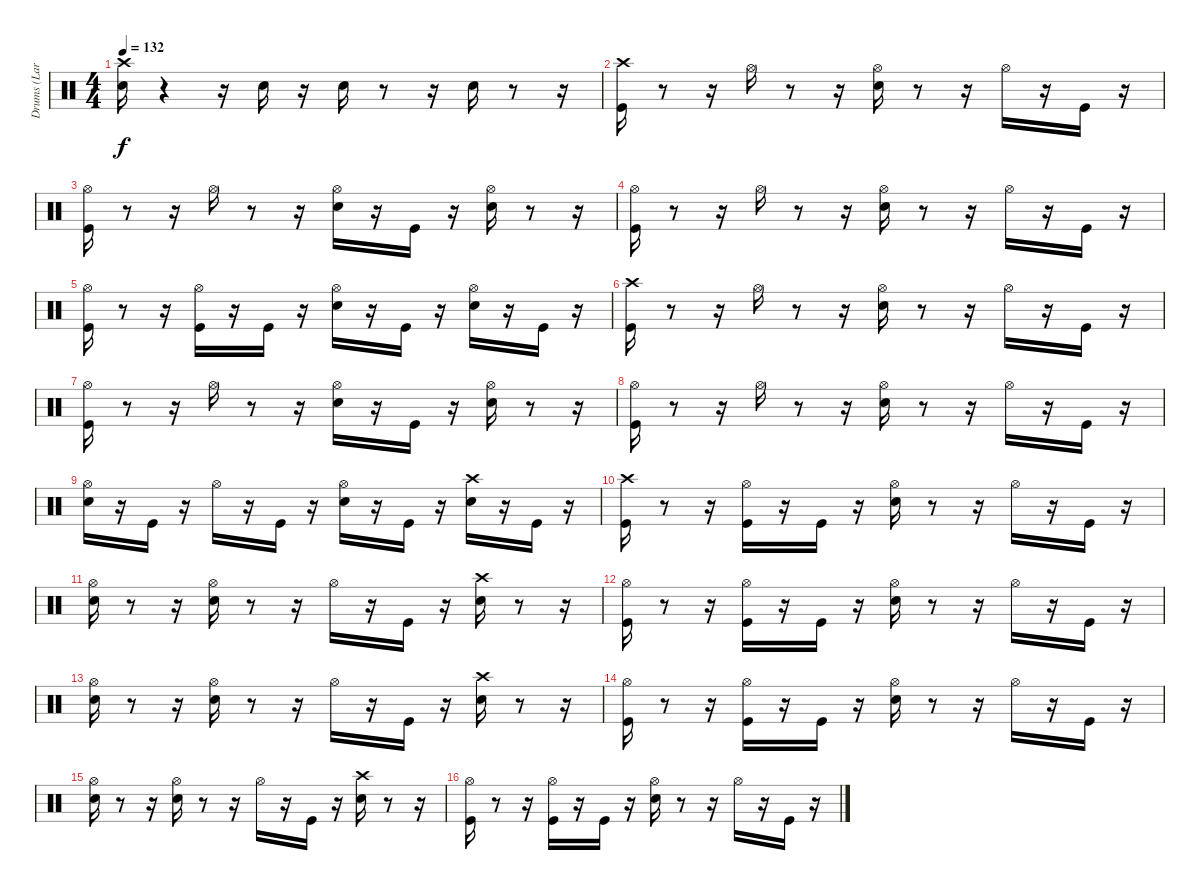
\track ("Drums (Lars)" "Drums (Lar") {instrument percussion}
\staff {score}
\articulation defaults
\ts (4 4)
\tempo 132
\clef neutral
\ks c
("Snare (hit) 2" "Crash high (hit)").16{dy f} r.4 r.16 "Snare (hit) 2".16 r.16 "Snare (hit) 2".16 r.8 r.16 "Snare (hit) 2".16 r.8 r.16 |
("Kick (hit)" "Crash high (hit)").16 r.8 r.16 "Hi-Hat (open)".16 r.8 r.16 ("Hi-Hat (open)" "Snare (hit) 2").16 r.8 r.16 "Hi-Hat (open)".16 r.16 "Kick (hit)".16 r.16 |
("Hi-Hat (open)" "Kick (hit)").16 r.8 r.16 "Hi-Hat (open)".16 r.8 r.16 ("Hi-Hat (open)" "Snare (hit) 2").16 r.16 "Kick (hit)".16 r.16 ("Hi-Hat (open)" "Snare (hit) 2").16 r.8 r.16 |
("Hi-Hat (open)" "Kick (hit)").16 r.8 r.16 "Hi-Hat (open)".16 r.8 r.16 ("Hi-Hat (open)" "Snare (hit) 2").16 r.8 r.16 "Hi-Hat (open)".16 r.16 "Kick (hit)".16 r.16 |
("Kick (hit)" "Hi-Hat (open)").16 r.8 r.16 ("Hi-Hat (open)" "Kick (hit)").16 r.16 "Kick (hit)".16 r.16 ("Hi-Hat (open)" "Snare (hit) 2").16 r.16 "Kick (hit)".16 r.16 ("Hi-Hat (open)" "Snare (hit) 2").16 r.16 "Kick (hit)".16 r.16 |
("Kick (hit)" "Crash high (hit)").16 r.8 r.16 "Hi-Hat (open)".16 r.8 r.16 ("Hi-Hat (open)" "Snare (hit) 2").16 r.8 r.16 "Hi-Hat (open)".16 r.16 "Kick (hit)".16 r.16 |
("Hi-Hat (open)" "Kick (hit)").16 r.8 r.16 "Hi-Hat (open)".16 r.8 r.16 ("Hi-Hat (open)" "Snare (hit) 2").16 r.16 "Kick (hit)".16 r.16 ("Hi-Hat (open)" "Snare (hit) 2").16 r.8 r.16 |
("Hi-Hat (open)" "Kick (hit)").16 r.8 r.16 "Hi-Hat (open)".16 r.8 r.16 ("Hi-Hat (open)" "Snare (hit) 2").16 r.8 r.16 "Hi-Hat (open)".16 r.16 "Kick (hit)".16 r.16 |
("Hi-Hat (open)" "Snare (hit) 2").16 r.16 "Kick (hit)".16 r.16 "Hi-Hat (open)".16 r.16 "Kick (hit)".16 r.16 ("Hi-Hat (open)" "Snare (hit) 2").16 r.16 "Kick (hit)".16 r.16 ("Snare (hit) 2" "Crash high (hit)").16 r.16 "Kick (hit)".16 r.16 |
("Kick (hit)" "Crash high (hit)").16 r.8 r.16 ("Hi-Hat (open)" "Kick (hit)").16 r.16 "Kick (hit)".16 r.16 ("Hi-Hat (open)" "Snare (hit) 2").16 r.8 r.16 "Hi-Hat (open)".16 r.16 "Kick (hit)".16 r.16 |
("Hi-Hat (open)" "Snare (hit) 2").16 r.8 r.16 ("Hi-Hat (open)" "Snare (hit) 2").16 r.8 r.16 "Hi-Hat (open)".16 r.16 "Kick (hit)".16 r.16 ("Crash high (hit)" "Snare (hit) 2").16 r.8 r.16 |
("Hi-Hat (open)" "Kick (hit)").16 r.8 r.16 ("Hi-Hat (open)" "Kick (hit)").16 r.16 "Kick (hit)".16 r.16 ("Hi-Hat (open)" "Snare (hit) 2").16 r.8 r.16 "Hi-Hat (open)".16 r.16 "Kick (hit)".16 r.16 |
("Hi-Hat (open)" "Snare (hit) 2").16 r.8 r.16 ("Hi-Hat (open)" "Snare (hit) 2").16 r.8 r.16 "Hi-Hat (open)".16 r.16 "Kick (hit)".16 r.16 ("Crash high (hit)" "Snare (hit) 2").16 r.8 r.16 |
("Hi-Hat (open)" "Kick (hit)").16 r.8 r.16 ("Hi-Hat (open)" "Kick (hit)").16 r.16 "Kick (hit)".16 r.16 ("Hi-Hat (open)" "Snare (hit) 2").16 r.8 r.16 "Hi-Hat (open)".16 r.16 "Kick (hit)".16 r.16 |
("Hi-Hat (open)" "Snare (hit) 2").16 r.8 r.16 ("Hi-Hat (open)" "Snare (hit) 2").16 r.8 r.16 "Hi-Hat (open)".16 r.16 "Kick (hit)".16 r.16 ("Crash high (hit)" "Snare (hit) 2").16 r.8 r.16 |
("Kick (hit)" "Hi-Hat (open)").16 r.8 r.16 ("Hi-Hat (open)" "Kick (hit)").16 r.16 "Kick (hit)".16 r.16 ("Hi-Hat (open)" "Snare (hit) 2").16 r.8 r.16 "Hi-Hat (open)".16 r.16 "Kick (hit)".16 r.16
